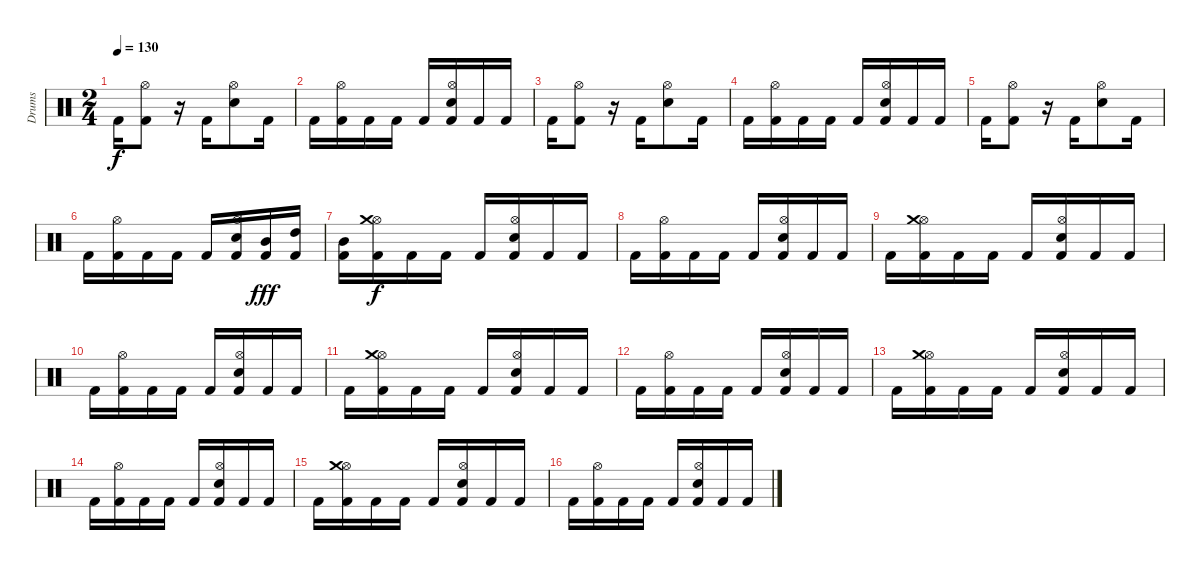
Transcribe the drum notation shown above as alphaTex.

\track ("Drums" "Drums") {instrument percussion}
\staff {score}
\articulation defaults
\ts (2 4)
\tempo 130
\clef neutral
\ks c "Kick (hit) 2".16{dy f}
("Kick (hit) 2" "Hi-Hat (open)").8 r.16 "Kick (hit) 2".16 ("Electric Snare (hit)" "Hi-Hat (open)").8 "Kick (hit) 2".16 |
"Kick (hit) 2".16 ("Kick (hit) 2" "Hi-Hat (open)").16 "Kick (hit) 2".16 "Kick (hit) 2".16 "Kick (hit) 2".16 ("Kick (hit) 2" "Hi-Hat (open)" "Electric Snare (hit)").16 "Kick (hit) 2".16 "Kick (hit) 2".16 |
"Kick (hit) 2".16 ("Kick (hit) 2" "Hi-Hat (open)").8 r.16 "Kick (hit) 2".16 ("Electric Snare (hit)" "Hi-Hat (open)").8 "Kick (hit) 2".16 |
"Kick (hit) 2".16 ("Kick (hit) 2" "Hi-Hat (open)").16 "Kick (hit) 2".16 "Kick (hit) 2".16 "Kick (hit) 2".16 ("Kick (hit) 2" "Hi-Hat (open)" "Electric Snare (hit)").16 "Kick (hit) 2".16 "Kick (hit) 2".16 |
"Kick (hit) 2".16 ("Kick (hit) 2" "Hi-Hat (open)").8 r.16 "Kick (hit) 2".16 ("Electric Snare (hit)" "Hi-Hat (open)").8 "Kick (hit) 2".16 |
"Kick (hit) 2".16 ("Kick (hit) 2" "Hi-Hat (open)").16 "Kick (hit) 2".16 "Kick (hit) 2".16 "Kick (hit) 2".16 ("Kick (hit) 2" "Hi-Hat (open)" "Electric Snare (hit)").16 ("Kick (hit) 2" "Mid Tom (hit)").16{dy fff} ("Kick (hit) 2" "High Tom (hit)").16 |
("Kick (hit) 2" "Mid Tom (hit)").16 ("Kick (hit) 2" "Hi-Hat (open)" "Crash medium (hit)").16{dy f} "Kick (hit) 2".16 "Kick (hit) 2".16 "Kick (hit) 2".16 ("Kick (hit) 2" "Electric Snare (hit)" "Hi-Hat (open)").16 "Kick (hit) 2".16 "Kick (hit) 2".16 |
"Kick (hit) 2".16 ("Kick (hit) 2" "Hi-Hat (open)").16 "Kick (hit) 2".16 "Kick (hit) 2".16 "Kick (hit) 2".16 ("Kick (hit) 2" "Electric Snare (hit)" "Hi-Hat (open)").16 "Kick (hit) 2".16 "Kick (hit) 2".16 |
"Kick (hit) 2".16 ("Kick (hit) 2" "Hi-Hat (open)" "Crash medium (hit)").16 "Kick (hit) 2".16 "Kick (hit) 2".16 "Kick (hit) 2".16 ("Kick (hit) 2" "Electric Snare (hit)" "Hi-Hat (open)").16 "Kick (hit) 2".16 "Kick (hit) 2".16 |
"Kick (hit) 2".16 ("Kick (hit) 2" "Hi-Hat (open)").16 "Kick (hit) 2".16 "Kick (hit) 2".16 "Kick (hit) 2".16 ("Kick (hit) 2" "Electric Snare (hit)" "Hi-Hat (open)").16 "Kick (hit) 2".16 "Kick (hit) 2".16 |
"Kick (hit) 2".16 ("Kick (hit) 2" "Hi-Hat (open)" "Crash medium (hit)").16 "Kick (hit) 2".16 "Kick (hit) 2".16 "Kick (hit) 2".16 ("Kick (hit) 2" "Electric Snare (hit)" "Hi-Hat (open)").16 "Kick (hit) 2".16 "Kick (hit) 2".16 |
"Kick (hit) 2".16 ("Kick (hit) 2" "Hi-Hat (open)").16 "Kick (hit) 2".16 "Kick (hit) 2".16 "Kick (hit) 2".16 ("Kick (hit) 2" "Electric Snare (hit)" "Hi-Hat (open)").16 "Kick (hit) 2".16 "Kick (hit) 2".16 |
"Kick (hit) 2".16 ("Kick (hit) 2" "Hi-Hat (open)" "Crash medium (hit)").16 "Kick (hit) 2".16 "Kick (hit) 2".16 "Kick (hit) 2".16 ("Kick (hit) 2" "Electric Snare (hit)" "Hi-Hat (open)").16 "Kick (hit) 2".16 "Kick (hit) 2".16 |
"Kick (hit) 2".16 ("Kick (hit) 2" "Hi-Hat (open)").16 "Kick (hit) 2".16 "Kick (hit) 2".16 "Kick (hit) 2".16 ("Kick (hit) 2" "Electric Snare (hit)" "Hi-Hat (open)").16 "Kick (hit) 2".16 "Kick (hit) 2".16 |
"Kick (hit) 2".16 ("Kick (hit) 2" "Hi-Hat (open)" "Crash medium (hit)").16 "Kick (hit) 2".16 "Kick (hit) 2".16 "Kick (hit) 2".16 ("Kick (hit) 2" "Electric Snare (hit)" "Hi-Hat (open)").16 "Kick (hit) 2".16 "Kick (hit) 2".16 |
"Kick (hit) 2".16 ("Kick (hit) 2" "Hi-Hat (open)").16 "Kick (hit) 2".16 "Kick (hit) 2".16 "Kick (hit) 2".16 ("Kick (hit) 2" "Electric Snare (hit)" "Hi-Hat (open)").16 "Kick (hit) 2".16 "Kick (hit) 2".16
